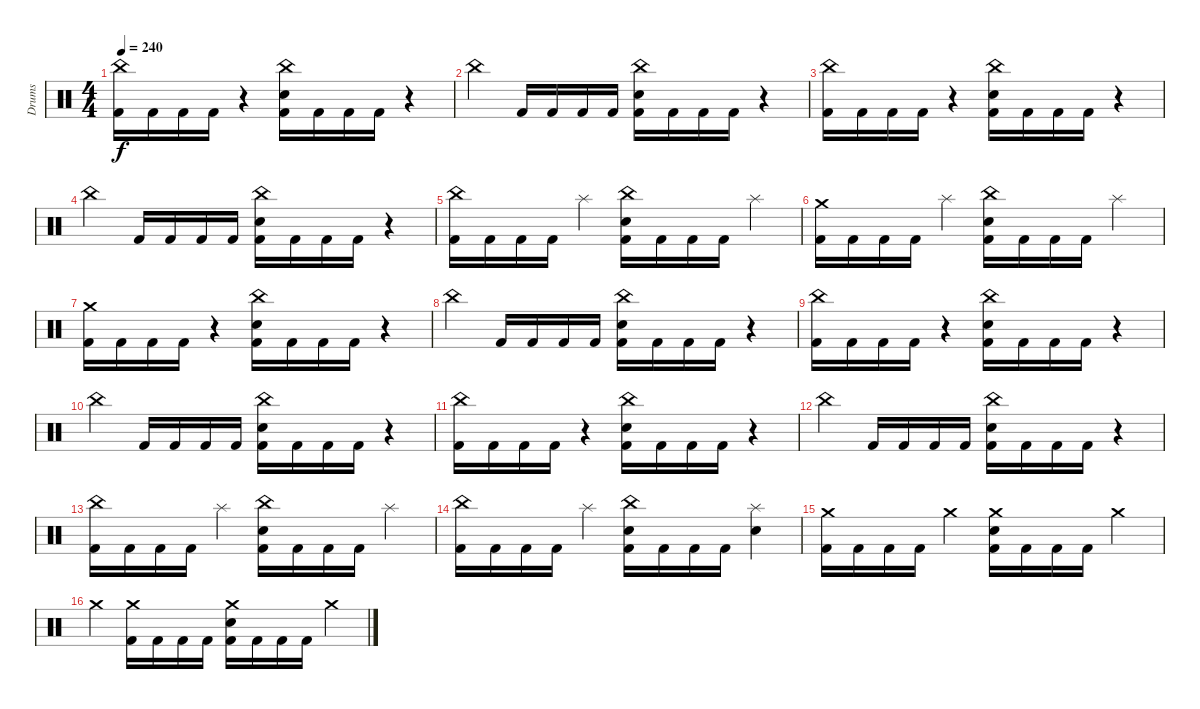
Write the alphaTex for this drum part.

\track ("Drums" "Drums") {instrument percussion}
\staff {score}
\articulation defaults
\ts (4 4)
\tempo 240
\clef neutral
\ks c
("China (hit)" "Kick (hit) 2").16{dy f} "Kick (hit) 2".16 "Kick (hit) 2".16 "Kick (hit) 2".16 r.4 ("China (hit)" "Electric Snare (hit)" "Kick (hit) 2").16 "Kick (hit) 2".16 "Kick (hit) 2".16 "Kick (hit) 2".16 r.4 |
"China (hit)".4 "Kick (hit) 2".16 "Kick (hit) 2".16 "Kick (hit) 2".16 "Kick (hit) 2".16 ("China (hit)" "Electric Snare (hit)" "Kick (hit) 2").16 "Kick (hit) 2".16 "Kick (hit) 2".16 "Kick (hit) 2".16 r.4 |
("China (hit)" "Kick (hit) 2").16 "Kick (hit) 2".16 "Kick (hit) 2".16 "Kick (hit) 2".16 r.4 ("China (hit)" "Electric Snare (hit)" "Kick (hit) 2").16 "Kick (hit) 2".16 "Kick (hit) 2".16 "Kick (hit) 2".16 r.4 |
"China (hit)".4 "Kick (hit) 2".16 "Kick (hit) 2".16 "Kick (hit) 2".16 "Kick (hit) 2".16 ("China (hit)" "Electric Snare (hit)" "Kick (hit) 2").16 "Kick (hit) 2".16 "Kick (hit) 2".16 "Kick (hit) 2".16 r.4 |
("China (hit)" "Kick (hit) 2").16 "Kick (hit) 2".16 "Kick (hit) 2".16 "Kick (hit) 2".16 "Splash (hit)".4 ("China (hit)" "Electric Snare (hit)" "Kick (hit) 2").16 "Kick (hit) 2".16 "Kick (hit) 2".16 "Kick (hit) 2".16 "Splash (hit)".4 |
("Crash medium (hit)" "Kick (hit) 2").16 "Kick (hit) 2".16 "Kick (hit) 2".16 "Kick (hit) 2".16 "Splash (hit)".4 ("China (hit)" "Electric Snare (hit)" "Kick (hit) 2").16 "Kick (hit) 2".16 "Kick (hit) 2".16 "Kick (hit) 2".16 "Splash (hit)".4 |
("Crash medium (hit)" "Kick (hit) 2").16 "Kick (hit) 2".16 "Kick (hit) 2".16 "Kick (hit) 2".16 r.4 ("China (hit)" "Electric Snare (hit)" "Kick (hit) 2").16 "Kick (hit) 2".16 "Kick (hit) 2".16 "Kick (hit) 2".16 r.4 |
"China (hit)".4 "Kick (hit) 2".16 "Kick (hit) 2".16 "Kick (hit) 2".16 "Kick (hit) 2".16 ("China (hit)" "Electric Snare (hit)" "Kick (hit) 2").16 "Kick (hit) 2".16 "Kick (hit) 2".16 "Kick (hit) 2".16 r.4 |
("China (hit)" "Kick (hit) 2").16 "Kick (hit) 2".16 "Kick (hit) 2".16 "Kick (hit) 2".16 r.4 ("China (hit)" "Electric Snare (hit)" "Kick (hit) 2").16 "Kick (hit) 2".16 "Kick (hit) 2".16 "Kick (hit) 2".16 r.4 |
"China (hit)".4 "Kick (hit) 2".16 "Kick (hit) 2".16 "Kick (hit) 2".16 "Kick (hit) 2".16 ("China (hit)" "Electric Snare (hit)" "Kick (hit) 2").16 "Kick (hit) 2".16 "Kick (hit) 2".16 "Kick (hit) 2".16 r.4 |
("China (hit)" "Kick (hit) 2").16 "Kick (hit) 2".16 "Kick (hit) 2".16 "Kick (hit) 2".16 r.4 ("China (hit)" "Electric Snare (hit)" "Kick (hit) 2").16 "Kick (hit) 2".16 "Kick (hit) 2".16 "Kick (hit) 2".16 r.4 |
"China (hit)".4 "Kick (hit) 2".16 "Kick (hit) 2".16 "Kick (hit) 2".16 "Kick (hit) 2".16 ("China (hit)" "Electric Snare (hit)" "Kick (hit) 2").16 "Kick (hit) 2".16 "Kick (hit) 2".16 "Kick (hit) 2".16 r.4 |
("China (hit)" "Kick (hit) 2").16 "Kick (hit) 2".16 "Kick (hit) 2".16 "Kick (hit) 2".16 "Splash (hit)".4 ("China (hit)" "Electric Snare (hit)" "Kick (hit) 2").16 "Kick (hit) 2".16 "Kick (hit) 2".16 "Kick (hit) 2".16 "Splash (hit)".4 |
("China (hit)" "Kick (hit) 2").16 "Kick (hit) 2".16 "Kick (hit) 2".16 "Kick (hit) 2".16 "Splash (hit)".4 ("China (hit)" "Electric Snare (hit)" "Kick (hit) 2").16 "Kick (hit) 2".16 "Kick (hit) 2".16 "Kick (hit) 2".16 ("Splash (hit)" "Electric Snare (hit)").4 |
("Crash medium (hit)" "Kick (hit) 2").16 "Kick (hit) 2".16 "Kick (hit) 2".16 "Kick (hit) 2".16 "Crash medium (hit)".4 ("Crash medium (hit)" "Electric Snare (hit)" "Kick (hit) 2").16 "Kick (hit) 2".16 "Kick (hit) 2".16 "Kick (hit) 2".16 "Crash medium (hit)".4 |
"Crash medium (hit)".4 ("Crash medium (hit)" "Kick (hit) 2").16 "Kick (hit) 2".16 "Kick (hit) 2".16 "Kick (hit) 2".16 ("Crash medium (hit)" "Electric Snare (hit)" "Kick (hit) 2").16 "Kick (hit) 2".16 "Kick (hit) 2".16 "Kick (hit) 2".16 "Crash medium (hit)".4
